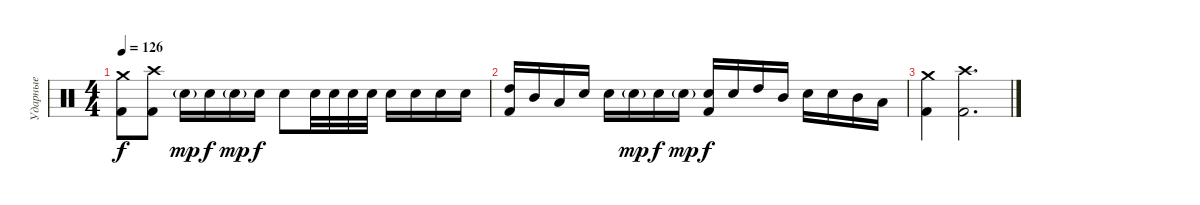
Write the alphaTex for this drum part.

\track ("Ударные" "Ударные") {instrument percussion}
\staff {score}
\articulation defaults
\ts (4 4)
\tempo 126
\clef neutral
\ks c
("Crash medium (hit)" "Kick (hit) 2").8{dy f} ("Crash high (hit)" "Kick (hit) 2").8 "Electric Snare (hit)"{g}.16{dy mp} "Electric Snare (hit)".16{dy f} "Electric Snare (hit)"{g}.16{dy mp} "Electric Snare (hit)".16{dy f} "Electric Snare (hit)".8 "Electric Snare (hit)".32 "Electric Snare (hit)".32 "Electric Snare (hit)".32 "Electric Snare (hit)".32 "Electric Snare (hit)".16 "Electric Snare (hit)".16 "Electric Snare (hit)".16 "Electric Snare (hit)".16 |
("High Tom (hit)" "Kick (hit) 2").16 "Mid Tom (hit)".16 "Low Tom (hit)".16 "Electric Snare (hit)".16 "Electric Snare (hit)".16 "Electric Snare (hit)"{g}.16{dy mp} "Electric Snare (hit)".16{dy f} "Electric Snare (hit)"{g}.16{dy mp} ("Electric Snare (hit)" "Kick (hit) 2").16{dy f} "Electric Snare (hit)".16 "High Tom (hit)".16 "Mid Tom (hit)".16 "Electric Snare (hit)".16 "Electric Snare (hit)".16 "Mid Tom (hit)".16 "Low Tom (hit)".16 |
("Crash medium (hit)" "Kick (hit) 2").4 ("Crash high (hit)" "Kick (hit) 2").2{d}
